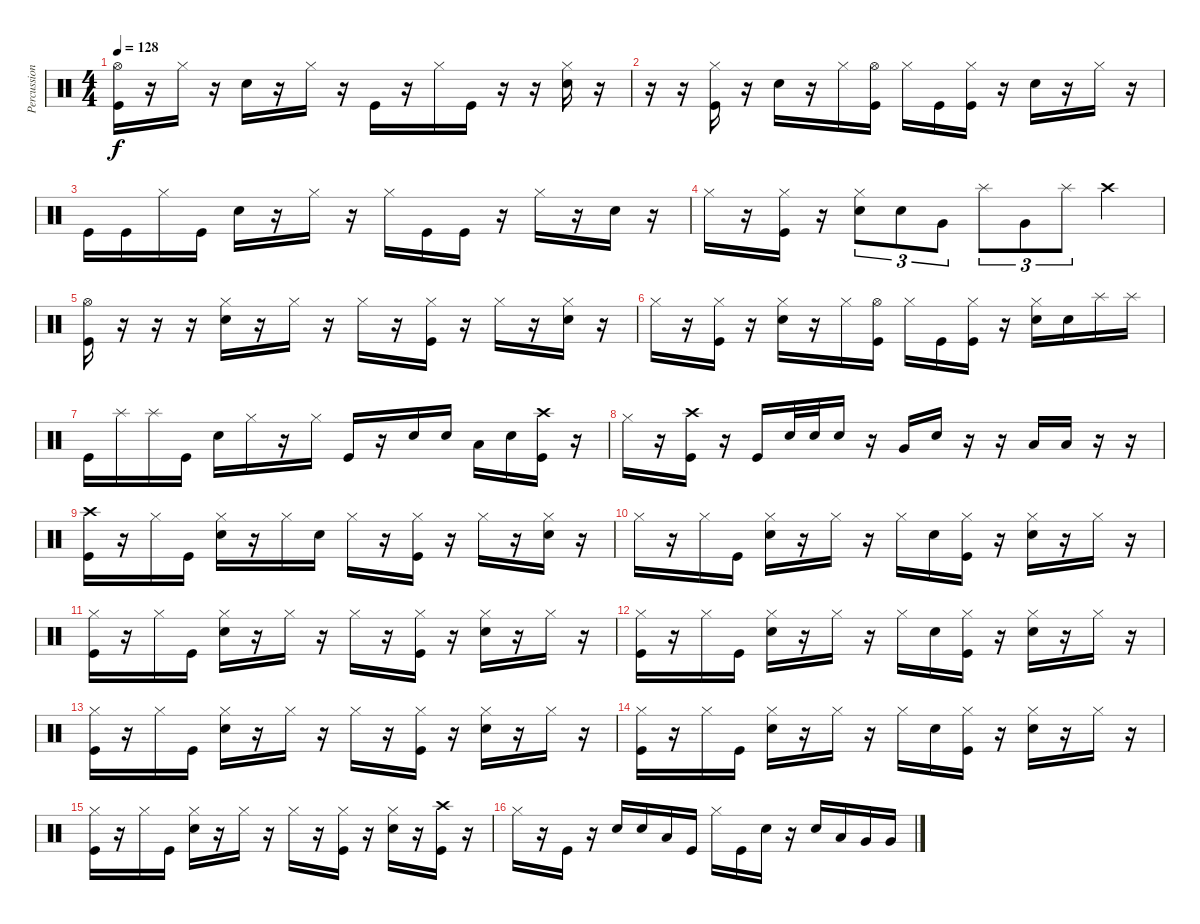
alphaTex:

\track ("Percussion" "Percussion") {instrument percussion}
\staff {score}
\articulation defaults
\ts (4 4)
\tempo 128
\clef neutral
\ks c
("Hi-Hat (open)" "Kick (hit)").16{dy f} r.16 "Hi-Hat (closed)".16 r.16 "Electric Snare (hit)".16 r.16 "Hi-Hat (closed)".16 r.16 "Kick (hit)".16 r.16 "Hi-Hat (closed)".16 "Kick (hit)".16 r.16 r.16 ("Hi-Hat (closed)" "Electric Snare (hit)").16 r.16 |
r.16 r.16 ("Hi-Hat (closed)" "Kick (hit)").16 r.16 "Electric Snare (hit)".16 r.16 "Hi-Hat (closed)".16 ("Hi-Hat (open)" "Kick (hit)").16 "Hi-Hat (closed)".16 "Kick (hit)".16 ("Hi-Hat (closed)" "Kick (hit)").16 r.16 "Electric Snare (hit)".16 r.16 "Hi-Hat (closed)".16 r.16 |
"Kick (hit)".16 "Kick (hit)".16 "Hi-Hat (closed)".16 "Kick (hit)".16 "Electric Snare (hit)".16 r.16 "Hi-Hat (closed)".16 r.16 "Hi-Hat (closed)".16 "Kick (hit)".16 "Kick (hit)".16 r.16 "Hi-Hat (closed)".16 r.16 "Electric Snare (hit)".16 r.16 |
"Hi-Hat (closed)".16 r.16 ("Hi-Hat (closed)" "Kick (hit)").16 r.16 ("Hi-Hat (closed)" "Electric Snare (hit)").8{tu (3 2)} "Electric Snare (hit)".8{tu (3 2)} "Very Low Tom (hit)".8{tu (3 2)} "Splash (hit)".8{tu (3 2)} "Very Low Tom (hit)".8{tu (3 2)} "Splash (hit)".8{tu (3 2)} "Crash high (hit)".4 |
("Hi-Hat (open)" "Kick (hit)").16 r.16 r.16 r.16 ("Hi-Hat (closed)" "Electric Snare (hit)").16 r.16 "Hi-Hat (closed)".16 r.16 "Hi-Hat (closed)".16 r.16 ("Hi-Hat (closed)" "Kick (hit)").16 r.16 "Hi-Hat (closed)".16 r.16 ("Hi-Hat (closed)" "Electric Snare (hit)").16 r.16 |
"Hi-Hat (closed)".16 r.16 ("Hi-Hat (closed)" "Kick (hit)").16 r.16 ("Hi-Hat (closed)" "Electric Snare (hit)").16 r.16 "Hi-Hat (closed)".16 ("Hi-Hat (open)" "Kick (hit)").16 "Hi-Hat (closed)".16 "Kick (hit)".16 ("Hi-Hat (closed)" "Kick (hit)").16 r.16 ("Hi-Hat (closed)" "Electric Snare (hit)").16 "Electric Snare (hit)".16 "Splash (hit)".16 "Splash (hit)".16 |
"Kick (hit)".16 "Splash (hit)".16 "Splash (hit)".16 "Kick (hit)".16 "Electric Snare (hit)".16 "Hi-Hat (closed)".16 r.16 "Hi-Hat (closed)".16 "Kick (hit)".16 r.16 "Electric Snare (hit)".16 "Electric Snare (hit)".16 "Low Tom (hit)".16 "Electric Snare (hit)".16 ("Crash high (hit)" "Kick (hit)").16 r.16 |
"Hi-Hat (closed)".16 r.16 ("Crash high (hit)" "Kick (hit)").16 r.16 "Kick (hit)".16 "Electric Snare (hit)".32 "Electric Snare (hit)".32 "Electric Snare (hit)".16 r.16 "Very Low Tom (hit)".16 "Electric Snare (hit)".16 r.16 r.16 "Low Floor Tom (hit)".16 "Low Floor Tom (hit)".16 r.16 r.16 |
("Crash high (hit)" "Kick (hit)").16 r.16 "Hi-Hat (closed)".16 "Kick (hit)".16 ("Hi-Hat (closed)" "Electric Snare (hit)").16 r.16 "Hi-Hat (closed)".16 "Electric Snare (hit)".16 "Hi-Hat (closed)".16 r.16 ("Hi-Hat (closed)" "Kick (hit)").16 r.16 "Hi-Hat (closed)".16 r.16 ("Hi-Hat (closed)" "Electric Snare (hit)").16 r.16 |
"Hi-Hat (closed)".16 r.16 "Hi-Hat (closed)".16 "Kick (hit)".16 ("Hi-Hat (closed)" "Electric Snare (hit)").16 r.16 "Hi-Hat (closed)".16 r.16 "Hi-Hat (closed)".16 "Electric Snare (hit)".16 ("Hi-Hat (closed)" "Kick (hit)").16 r.16 ("Hi-Hat (closed)" "Electric Snare (hit)").16 r.16 "Hi-Hat (closed)".16 r.16 |
("Hi-Hat (closed)" "Kick (hit)").16 r.16 "Hi-Hat (closed)".16 "Kick (hit)".16 ("Hi-Hat (closed)" "Electric Snare (hit)").16 r.16 "Hi-Hat (closed)".16 r.16 "Hi-Hat (closed)".16 r.16 ("Hi-Hat (closed)" "Kick (hit)").16 r.16 ("Hi-Hat (closed)" "Electric Snare (hit)").16 r.16 "Hi-Hat (closed)".16 r.16 |
("Hi-Hat (closed)" "Kick (hit)").16 r.16 "Hi-Hat (closed)".16 "Kick (hit)".16 ("Hi-Hat (closed)" "Electric Snare (hit)").16 r.16 "Hi-Hat (closed)".16 r.16 "Hi-Hat (closed)".16 "Electric Snare (hit)".16 ("Hi-Hat (closed)" "Kick (hit)").16 r.16 ("Hi-Hat (closed)" "Electric Snare (hit)").16 r.16 "Hi-Hat (closed)".16 r.16 |
("Hi-Hat (closed)" "Kick (hit)").16 r.16 "Hi-Hat (closed)".16 "Kick (hit)".16 ("Hi-Hat (closed)" "Electric Snare (hit)").16 r.16 "Hi-Hat (closed)".16 r.16 "Hi-Hat (closed)".16 r.16 ("Hi-Hat (closed)" "Kick (hit)").16 r.16 ("Hi-Hat (closed)" "Electric Snare (hit)").16 r.16 "Hi-Hat (closed)".16 r.16 |
("Hi-Hat (closed)" "Kick (hit)").16 r.16 "Hi-Hat (closed)".16 "Kick (hit)".16 ("Hi-Hat (closed)" "Electric Snare (hit)").16 r.16 "Hi-Hat (closed)".16 r.16 "Hi-Hat (closed)".16 "Electric Snare (hit)".16 ("Hi-Hat (closed)" "Kick (hit)").16 r.16 ("Hi-Hat (closed)" "Electric Snare (hit)").16 r.16 "Hi-Hat (closed)".16 r.16 |
("Hi-Hat (closed)" "Kick (hit)").16 r.16 "Hi-Hat (closed)".16 "Kick (hit)".16 ("Hi-Hat (closed)" "Electric Snare (hit)").16 r.16 "Hi-Hat (closed)".16 r.16 "Hi-Hat (closed)".16 r.16 ("Hi-Hat (closed)" "Kick (hit)").16 r.16 ("Hi-Hat (closed)" "Electric Snare (hit)").16 r.16 ("Crash high (hit)" "Kick (hit)").16 r.16 |
"Hi-Hat (closed)".16 r.16 "Kick (hit)".16 r.16 "Electric Snare (hit)".16 "Electric Snare (hit)".16 "Low Tom (hit)".16 "Kick (hit)".16 "Hi-Hat (closed)".16 "Kick (hit)".16 "Electric Snare (hit)".16 r.16 "Electric Snare (hit)".16 "Low Tom (hit)".16 "Very Low Tom (hit)".16 "Very Low Tom (hit)".16
